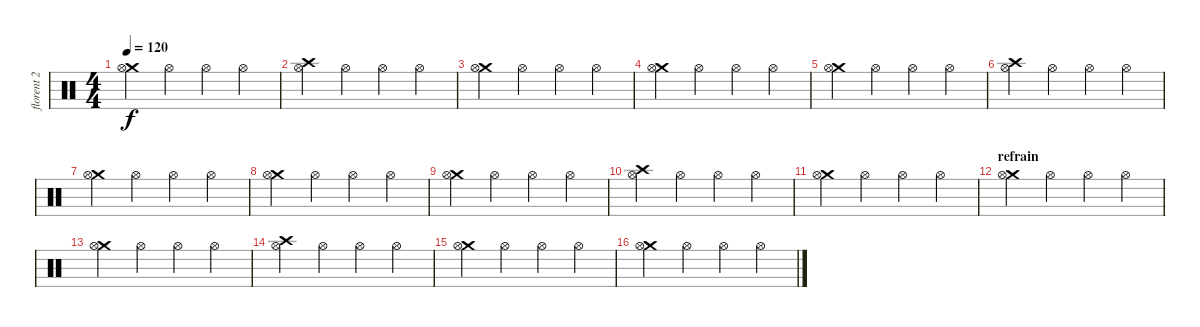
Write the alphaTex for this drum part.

\track ("florent 2" "florent 2") {instrument percussion}
\staff {score}
\articulation defaults
\ts (4 4)
\tempo 120
\clef neutral
\ks c
("Crash medium (hit)" "Hi-Hat (open)").4{dy f} "Hi-Hat (open)".4 "Hi-Hat (open)".4 "Hi-Hat (open)".4 |
("Crash high (hit)" "Hi-Hat (open)").4 "Hi-Hat (open)".4 "Hi-Hat (open)".4 "Hi-Hat (open)".4 |
("Crash medium (hit)" "Hi-Hat (open)").4 "Hi-Hat (open)".4 "Hi-Hat (open)".4 "Hi-Hat (open)".4 |
("Crash medium (hit)" "Hi-Hat (open)").4 "Hi-Hat (open)".4 "Hi-Hat (open)".4 "Hi-Hat (open)".4 |
("Crash medium (hit)" "Hi-Hat (open)").4 "Hi-Hat (open)".4 "Hi-Hat (open)".4 "Hi-Hat (open)".4 |
("Crash high (hit)" "Hi-Hat (open)").4 "Hi-Hat (open)".4 "Hi-Hat (open)".4 "Hi-Hat (open)".4 |
("Crash medium (hit)" "Hi-Hat (open)").4 "Hi-Hat (open)".4 "Hi-Hat (open)".4 "Hi-Hat (open)".4 |
("Crash medium (hit)" "Hi-Hat (open)").4 "Hi-Hat (open)".4 "Hi-Hat (open)".4 "Hi-Hat (open)".4 |
("Crash medium (hit)" "Hi-Hat (open)").4 "Hi-Hat (open)".4 "Hi-Hat (open)".4 "Hi-Hat (open)".4 |
("Crash high (hit)" "Hi-Hat (open)").4 "Hi-Hat (open)".4 "Hi-Hat (open)".4 "Hi-Hat (open)".4 |
("Crash medium (hit)" "Hi-Hat (open)").4 "Hi-Hat (open)".4 "Hi-Hat (open)".4 "Hi-Hat (open)".4 |
\section ("" "refrain")
("Crash medium (hit)" "Hi-Hat (open)").4 "Hi-Hat (open)".4 "Hi-Hat (open)".4 "Hi-Hat (open)".4 |
("Crash medium (hit)" "Hi-Hat (open)").4 "Hi-Hat (open)".4 "Hi-Hat (open)".4 "Hi-Hat (open)".4 |
("Crash high (hit)" "Hi-Hat (open)").4 "Hi-Hat (open)".4 "Hi-Hat (open)".4 "Hi-Hat (open)".4 |
("Crash medium (hit)" "Hi-Hat (open)").4 "Hi-Hat (open)".4 "Hi-Hat (open)".4 "Hi-Hat (open)".4 |
("Crash medium (hit)" "Hi-Hat (open)").4 "Hi-Hat (open)".4 "Hi-Hat (open)".4 "Hi-Hat (open)".4
